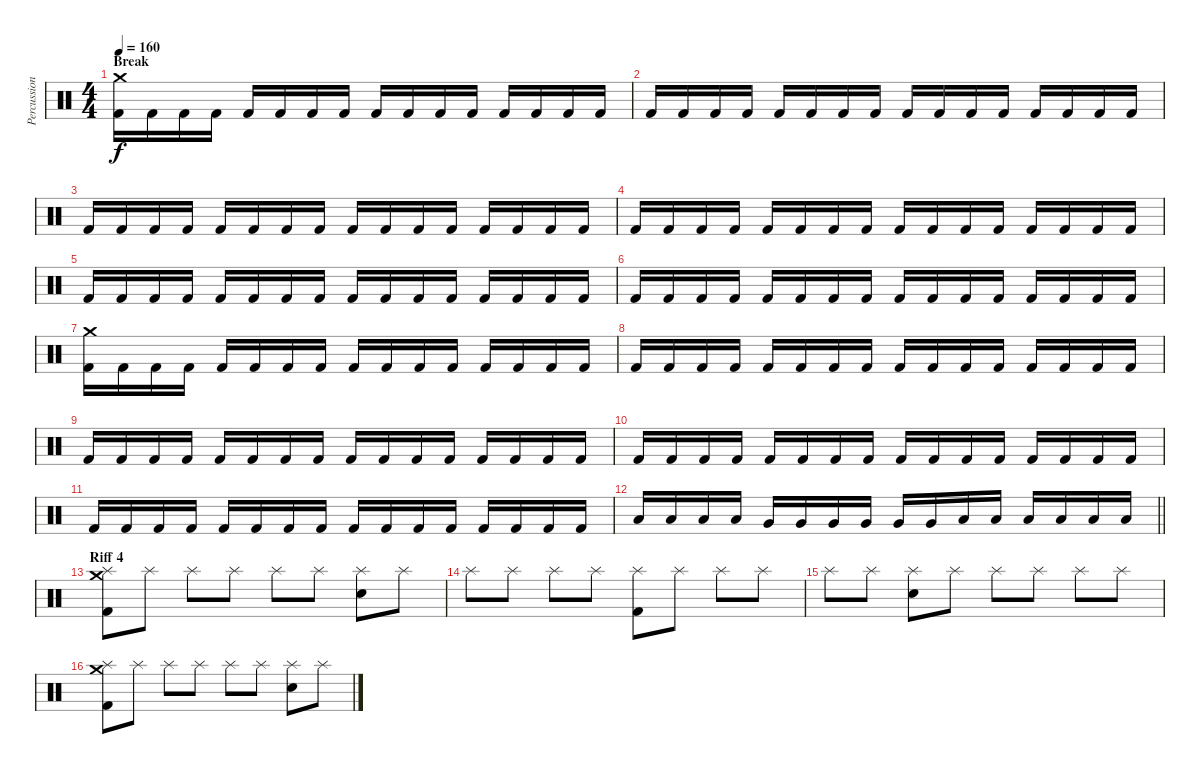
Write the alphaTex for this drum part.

\track ("Percussions" "Percussion") {instrument percussion}
\staff {score}
\articulation defaults
\ts (4 4)
\section ("" "Break")
\tempo 160
\clef neutral
\ks c
("Crash medium (hit)" "Kick (hit) 2").16{dy f} "Kick (hit) 2".16 "Kick (hit) 2".16 "Kick (hit) 2".16 "Kick (hit) 2".16 "Kick (hit) 2".16 "Kick (hit) 2".16 "Kick (hit) 2".16 "Kick (hit) 2".16 "Kick (hit) 2".16 "Kick (hit) 2".16 "Kick (hit) 2".16 "Kick (hit) 2".16 "Kick (hit) 2".16 "Kick (hit) 2".16 "Kick (hit) 2".16 |
"Kick (hit) 2".16 "Kick (hit) 2".16 "Kick (hit) 2".16 "Kick (hit) 2".16 "Kick (hit) 2".16 "Kick (hit) 2".16 "Kick (hit) 2".16 "Kick (hit) 2".16 "Kick (hit) 2".16 "Kick (hit) 2".16 "Kick (hit) 2".16 "Kick (hit) 2".16 "Kick (hit) 2".16 "Kick (hit) 2".16 "Kick (hit) 2".16 "Kick (hit) 2".16 |
"Kick (hit) 2".16 "Kick (hit) 2".16 "Kick (hit) 2".16 "Kick (hit) 2".16 "Kick (hit) 2".16 "Kick (hit) 2".16 "Kick (hit) 2".16 "Kick (hit) 2".16 "Kick (hit) 2".16 "Kick (hit) 2".16 "Kick (hit) 2".16 "Kick (hit) 2".16 "Kick (hit) 2".16 "Kick (hit) 2".16 "Kick (hit) 2".16 "Kick (hit) 2".16 |
"Kick (hit) 2".16 "Kick (hit) 2".16 "Kick (hit) 2".16 "Kick (hit) 2".16 "Kick (hit) 2".16 "Kick (hit) 2".16 "Kick (hit) 2".16 "Kick (hit) 2".16 "Kick (hit) 2".16 "Kick (hit) 2".16 "Kick (hit) 2".16 "Kick (hit) 2".16 "Kick (hit) 2".16 "Kick (hit) 2".16 "Kick (hit) 2".16 "Kick (hit) 2".16 |
"Kick (hit) 2".16 "Kick (hit) 2".16 "Kick (hit) 2".16 "Kick (hit) 2".16 "Kick (hit) 2".16 "Kick (hit) 2".16 "Kick (hit) 2".16 "Kick (hit) 2".16 "Kick (hit) 2".16 "Kick (hit) 2".16 "Kick (hit) 2".16 "Kick (hit) 2".16 "Kick (hit) 2".16 "Kick (hit) 2".16 "Kick (hit) 2".16 "Kick (hit) 2".16 |
"Kick (hit) 2".16 "Kick (hit) 2".16 "Kick (hit) 2".16 "Kick (hit) 2".16 "Kick (hit) 2".16 "Kick (hit) 2".16 "Kick (hit) 2".16 "Kick (hit) 2".16 "Kick (hit) 2".16 "Kick (hit) 2".16 "Kick (hit) 2".16 "Kick (hit) 2".16 "Kick (hit) 2".16 "Kick (hit) 2".16 "Kick (hit) 2".16 "Kick (hit) 2".16 |
("Crash medium (hit)" "Kick (hit) 2").16 "Kick (hit) 2".16 "Kick (hit) 2".16 "Kick (hit) 2".16 "Kick (hit) 2".16 "Kick (hit) 2".16 "Kick (hit) 2".16 "Kick (hit) 2".16 "Kick (hit) 2".16 "Kick (hit) 2".16 "Kick (hit) 2".16 "Kick (hit) 2".16 "Kick (hit) 2".16 "Kick (hit) 2".16 "Kick (hit) 2".16 "Kick (hit) 2".16 |
"Kick (hit) 2".16 "Kick (hit) 2".16 "Kick (hit) 2".16 "Kick (hit) 2".16 "Kick (hit) 2".16 "Kick (hit) 2".16 "Kick (hit) 2".16 "Kick (hit) 2".16 "Kick (hit) 2".16 "Kick (hit) 2".16 "Kick (hit) 2".16 "Kick (hit) 2".16 "Kick (hit) 2".16 "Kick (hit) 2".16 "Kick (hit) 2".16 "Kick (hit) 2".16 |
"Kick (hit) 2".16 "Kick (hit) 2".16 "Kick (hit) 2".16 "Kick (hit) 2".16 "Kick (hit) 2".16 "Kick (hit) 2".16 "Kick (hit) 2".16 "Kick (hit) 2".16 "Kick (hit) 2".16 "Kick (hit) 2".16 "Kick (hit) 2".16 "Kick (hit) 2".16 "Kick (hit) 2".16 "Kick (hit) 2".16 "Kick (hit) 2".16 "Kick (hit) 2".16 |
"Kick (hit) 2".16 "Kick (hit) 2".16 "Kick (hit) 2".16 "Kick (hit) 2".16 "Kick (hit) 2".16 "Kick (hit) 2".16 "Kick (hit) 2".16 "Kick (hit) 2".16 "Kick (hit) 2".16 "Kick (hit) 2".16 "Kick (hit) 2".16 "Kick (hit) 2".16 "Kick (hit) 2".16 "Kick (hit) 2".16 "Kick (hit) 2".16 "Kick (hit) 2".16 |
"Kick (hit) 2".16 "Kick (hit) 2".16 "Kick (hit) 2".16 "Kick (hit) 2".16 "Kick (hit) 2".16 "Kick (hit) 2".16 "Kick (hit) 2".16 "Kick (hit) 2".16 "Kick (hit) 2".16 "Kick (hit) 2".16 "Kick (hit) 2".16 "Kick (hit) 2".16 "Kick (hit) 2".16 "Kick (hit) 2".16 "Kick (hit) 2".16 "Kick (hit) 2".16 |
\barLineRight lightlight "Low Tom (hit)".16 "Low Tom (hit)".16 "Low Tom (hit)".16 "Low Tom (hit)".16 "Very Low Tom (hit)".16 "Very Low Tom (hit)".16 "Very Low Tom (hit)".16 "Very Low Tom (hit)".16 "Very Low Tom (hit)".16 "Very Low Tom (hit)".16 "Low Floor Tom (hit)".16 "Low Floor Tom (hit)".16 "Low Floor Tom (hit)".16 "Low Floor Tom (hit)".16 "Low Floor Tom (hit)".16 "Low Floor Tom (hit)".16
|
\section ("" "Riff 4")
("Crash medium (hit)" "Splash (hit)" "Kick (hit) 2").8 "Splash (hit)".8 "Splash (hit)".8 "Splash (hit)".8 "Splash (hit)".8 "Splash (hit)".8 ("Splash (hit)" "Snare (hit) 2").8 "Splash (hit)".8 |
"Splash (hit)".8 "Splash (hit)".8 "Splash (hit)".8 "Splash (hit)".8 ("Splash (hit)" "Kick (hit) 2").8 "Splash (hit)".8 "Splash (hit)".8 "Splash (hit)".8 |
"Splash (hit)".8 "Splash (hit)".8 ("Splash (hit)" "Snare (hit) 2").8 "Splash (hit)".8 "Splash (hit)".8 "Splash (hit)".8 "Splash (hit)".8 "Splash (hit)".8 |
("Crash medium (hit)" "Splash (hit)" "Kick (hit) 2").8 "Splash (hit)".8 "Splash (hit)".8 "Splash (hit)".8 "Splash (hit)".8 "Splash (hit)".8 ("Splash (hit)" "Snare (hit) 2").8 "Splash (hit)".8
